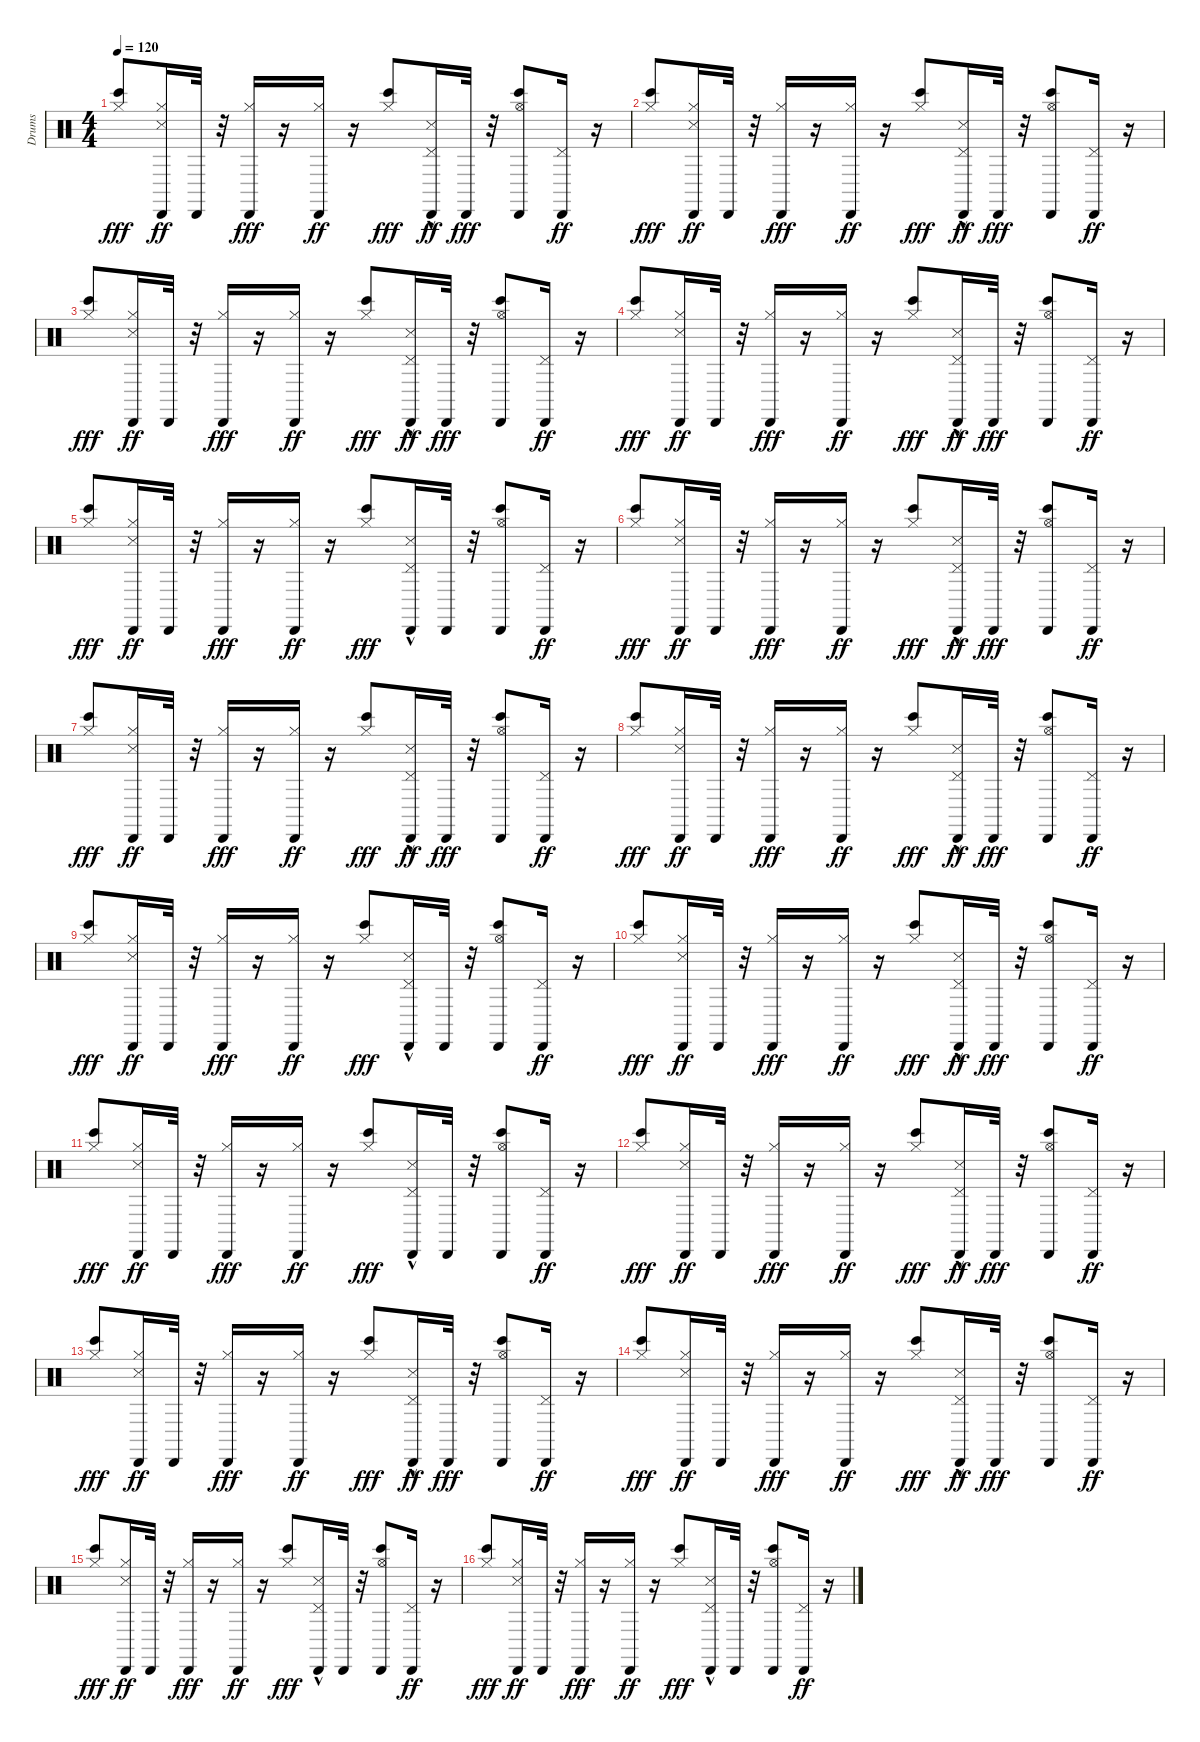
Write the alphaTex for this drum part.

\track ("Drums" "Drums") {instrument percussion}
\staff {score}
\articulation defaults
\ts (4 4)
\tempo 120
\clef neutral
\ks c
("Hi-Hat (closed)" "Bongo High (hit)").8{dy fff} ("Snare (side stick) 3" "Cabasa (hit)" "Hi-Hat (closed)").16{dy ff} "Cabasa (hit)".32 r.32 ("Cabasa (hit)" "Hi-Hat (closed)").16{dy fff} r.16 ("Cabasa (hit)" "Hi-Hat (closed)").16{dy ff} r.16 ("Hi-Hat (closed)" "Bongo High (hit)").8{dy fff} ("Snare (side stick) 3"{hac} "Cabasa (hit)" "Pedal Hi-Hat (hit)").16{dy ff} "Cabasa (hit)".32{dy fff} r.32 ("Cabasa (hit)" "Hi-Hat (open)" "Bongo High (hit)").8 ("Cabasa (hit)" "Pedal Hi-Hat (hit)").16{dy ff} r.16 |
("Hi-Hat (closed)" "Bongo High (hit)").8{dy fff} ("Snare (side stick) 3" "Cabasa (hit)" "Hi-Hat (closed)").16{dy ff} "Cabasa (hit)".32 r.32 ("Cabasa (hit)" "Hi-Hat (closed)").16{dy fff} r.16 ("Cabasa (hit)" "Hi-Hat (closed)").16{dy ff} r.16 ("Hi-Hat (closed)" "Bongo High (hit)").8{dy fff} ("Snare (side stick) 3"{hac} "Cabasa (hit)" "Pedal Hi-Hat (hit)").16{dy ff} "Cabasa (hit)".32{dy fff} r.32 ("Cabasa (hit)" "Hi-Hat (open)" "Bongo High (hit)").8 ("Cabasa (hit)" "Pedal Hi-Hat (hit)").16{dy ff} r.16 |
("Hi-Hat (closed)" "Bongo High (hit)").8{dy fff} ("Snare (side stick) 3" "Cabasa (hit)" "Hi-Hat (closed)").16{dy ff} "Cabasa (hit)".32 r.32 ("Cabasa (hit)" "Hi-Hat (closed)").16{dy fff} r.16 ("Cabasa (hit)" "Hi-Hat (closed)").16{dy ff} r.16 ("Hi-Hat (closed)" "Bongo High (hit)").8{dy fff} ("Snare (side stick) 3"{hac} "Cabasa (hit)" "Pedal Hi-Hat (hit)").16{dy ff} "Cabasa (hit)".32{dy fff} r.32 ("Cabasa (hit)" "Hi-Hat (open)" "Bongo High (hit)").8 ("Cabasa (hit)" "Pedal Hi-Hat (hit)").16{dy ff} r.16 |
("Hi-Hat (closed)" "Bongo High (hit)").8{dy fff} ("Snare (side stick) 3" "Cabasa (hit)" "Hi-Hat (closed)").16{dy ff} "Cabasa (hit)".32 r.32 ("Cabasa (hit)" "Hi-Hat (closed)").16{dy fff} r.16 ("Cabasa (hit)" "Hi-Hat (closed)").16{dy ff} r.16 ("Hi-Hat (closed)" "Bongo High (hit)").8{dy fff} ("Snare (side stick) 3"{hac} "Cabasa (hit)" "Pedal Hi-Hat (hit)").16{dy ff} "Cabasa (hit)".32{dy fff} r.32 ("Cabasa (hit)" "Hi-Hat (open)" "Bongo High (hit)").8 ("Cabasa (hit)" "Pedal Hi-Hat (hit)").16{dy ff} r.16 |
("Hi-Hat (closed)" "Bongo High (hit)").8{dy fff} ("Snare (side stick) 3" "Cabasa (hit)" "Hi-Hat (closed)").16{dy ff} "Cabasa (hit)".32 r.32 ("Cabasa (hit)" "Hi-Hat (closed)").16{dy fff} r.16 ("Cabasa (hit)" "Hi-Hat (closed)").16{dy ff} r.16 ("Hi-Hat (closed)" "Bongo High (hit)").8{dy fff} ("Pedal Hi-Hat (hit)" "Snare (side stick) 3"{hac} "Cabasa (hit)").16 "Cabasa (hit)".32 r.32 ("Cabasa (hit)" "Hi-Hat (open)" "Bongo High (hit)").8 ("Cabasa (hit)" "Pedal Hi-Hat (hit)").16{dy ff} r.16 |
("Hi-Hat (closed)" "Bongo High (hit)").8{dy fff} ("Snare (side stick) 3" "Cabasa (hit)" "Hi-Hat (closed)").16{dy ff} "Cabasa (hit)".32 r.32 ("Cabasa (hit)" "Hi-Hat (closed)").16{dy fff} r.16 ("Cabasa (hit)" "Hi-Hat (closed)").16{dy ff} r.16 ("Hi-Hat (closed)" "Bongo High (hit)").8{dy fff} ("Snare (side stick) 3"{hac} "Cabasa (hit)" "Pedal Hi-Hat (hit)").16{dy ff} "Cabasa (hit)".32{dy fff} r.32 ("Cabasa (hit)" "Hi-Hat (open)" "Bongo High (hit)").8 ("Cabasa (hit)" "Pedal Hi-Hat (hit)").16{dy ff} r.16 |
("Hi-Hat (closed)" "Bongo High (hit)").8{dy fff} ("Snare (side stick) 3" "Cabasa (hit)" "Hi-Hat (closed)").16{dy ff} "Cabasa (hit)".32 r.32 ("Cabasa (hit)" "Hi-Hat (closed)").16{dy fff} r.16 ("Cabasa (hit)" "Hi-Hat (closed)").16{dy ff} r.16 ("Hi-Hat (closed)" "Bongo High (hit)").8{dy fff} ("Snare (side stick) 3"{hac} "Cabasa (hit)" "Pedal Hi-Hat (hit)").16{dy ff} "Cabasa (hit)".32{dy fff} r.32 ("Cabasa (hit)" "Hi-Hat (open)" "Bongo High (hit)").8 ("Cabasa (hit)" "Pedal Hi-Hat (hit)").16{dy ff} r.16 |
("Hi-Hat (closed)" "Bongo High (hit)").8{dy fff} ("Snare (side stick) 3" "Cabasa (hit)" "Hi-Hat (closed)").16{dy ff} "Cabasa (hit)".32 r.32 ("Cabasa (hit)" "Hi-Hat (closed)").16{dy fff} r.16 ("Cabasa (hit)" "Hi-Hat (closed)").16{dy ff} r.16 ("Hi-Hat (closed)" "Bongo High (hit)").8{dy fff} ("Snare (side stick) 3"{hac} "Cabasa (hit)" "Pedal Hi-Hat (hit)").16{dy ff} "Cabasa (hit)".32{dy fff} r.32 ("Cabasa (hit)" "Hi-Hat (open)" "Bongo High (hit)").8 ("Cabasa (hit)" "Pedal Hi-Hat (hit)").16{dy ff} r.16 |
("Hi-Hat (closed)" "Bongo High (hit)").8{dy fff} ("Snare (side stick) 3" "Cabasa (hit)" "Hi-Hat (closed)").16{dy ff} "Cabasa (hit)".32 r.32 ("Cabasa (hit)" "Hi-Hat (closed)").16{dy fff} r.16 ("Cabasa (hit)" "Hi-Hat (closed)").16{dy ff} r.16 ("Hi-Hat (closed)" "Bongo High (hit)").8{dy fff} ("Pedal Hi-Hat (hit)" "Snare (side stick) 3"{hac} "Cabasa (hit)").16 "Cabasa (hit)".32 r.32 ("Cabasa (hit)" "Hi-Hat (open)" "Bongo High (hit)").8 ("Cabasa (hit)" "Pedal Hi-Hat (hit)").16{dy ff} r.16 |
("Hi-Hat (closed)" "Bongo High (hit)").8{dy fff} ("Snare (side stick) 3" "Cabasa (hit)" "Hi-Hat (closed)").16{dy ff} "Cabasa (hit)".32 r.32 ("Cabasa (hit)" "Hi-Hat (closed)").16{dy fff} r.16 ("Cabasa (hit)" "Hi-Hat (closed)").16{dy ff} r.16 ("Hi-Hat (closed)" "Bongo High (hit)").8{dy fff} ("Snare (side stick) 3"{hac} "Cabasa (hit)" "Pedal Hi-Hat (hit)").16{dy ff} "Cabasa (hit)".32{dy fff} r.32 ("Cabasa (hit)" "Hi-Hat (open)" "Bongo High (hit)").8 ("Cabasa (hit)" "Pedal Hi-Hat (hit)").16{dy ff} r.16 |
("Hi-Hat (closed)" "Bongo High (hit)").8{dy fff} ("Snare (side stick) 3" "Cabasa (hit)" "Hi-Hat (closed)").16{dy ff} "Cabasa (hit)".32 r.32 ("Cabasa (hit)" "Hi-Hat (closed)").16{dy fff} r.16 ("Cabasa (hit)" "Hi-Hat (closed)").16{dy ff} r.16 ("Hi-Hat (closed)" "Bongo High (hit)").8{dy fff} ("Cabasa (hit)" "Pedal Hi-Hat (hit)" "Snare (side stick) 3"{hac}).16 "Cabasa (hit)".32 r.32 ("Cabasa (hit)" "Hi-Hat (open)" "Bongo High (hit)").8 ("Cabasa (hit)" "Pedal Hi-Hat (hit)").16{dy ff} r.16 |
("Hi-Hat (closed)" "Bongo High (hit)").8{dy fff} ("Snare (side stick) 3" "Cabasa (hit)" "Hi-Hat (closed)").16{dy ff} "Cabasa (hit)".32 r.32 ("Cabasa (hit)" "Hi-Hat (closed)").16{dy fff} r.16 ("Cabasa (hit)" "Hi-Hat (closed)").16{dy ff} r.16 ("Hi-Hat (closed)" "Bongo High (hit)").8{dy fff} ("Snare (side stick) 3"{hac} "Cabasa (hit)" "Pedal Hi-Hat (hit)").16{dy ff} "Cabasa (hit)".32{dy fff} r.32 ("Cabasa (hit)" "Hi-Hat (open)" "Bongo High (hit)").8 ("Cabasa (hit)" "Pedal Hi-Hat (hit)").16{dy ff} r.16 |
("Hi-Hat (closed)" "Bongo High (hit)").8{dy fff} ("Snare (side stick) 3" "Cabasa (hit)" "Hi-Hat (closed)").16{dy ff} "Cabasa (hit)".32 r.32 ("Hi-Hat (closed)" "Cabasa (hit)").16{dy fff} r.16 ("Cabasa (hit)" "Hi-Hat (closed)").16{dy ff} r.16 ("Hi-Hat (closed)" "Bongo High (hit)").8{dy fff} ("Snare (side stick) 3"{hac} "Cabasa (hit)" "Pedal Hi-Hat (hit)").16{dy ff} "Cabasa (hit)".32{dy fff} r.32 ("Cabasa (hit)" "Hi-Hat (open)" "Bongo High (hit)").8 ("Cabasa (hit)" "Pedal Hi-Hat (hit)").16{dy ff} r.16 |
("Hi-Hat (closed)" "Bongo High (hit)").8{dy fff} ("Snare (side stick) 3" "Cabasa (hit)" "Hi-Hat (closed)").16{dy ff} "Cabasa (hit)".32 r.32 ("Cabasa (hit)" "Hi-Hat (closed)").16{dy fff} r.16 ("Cabasa (hit)" "Hi-Hat (closed)").16{dy ff} r.16 ("Hi-Hat (closed)" "Bongo High (hit)").8{dy fff} ("Snare (side stick) 3"{hac} "Cabasa (hit)" "Pedal Hi-Hat (hit)").16{dy ff} "Cabasa (hit)".32{dy fff} r.32 ("Cabasa (hit)" "Hi-Hat (open)" "Bongo High (hit)").8 ("Cabasa (hit)" "Pedal Hi-Hat (hit)").16{dy ff} r.16 |
("Hi-Hat (closed)" "Bongo High (hit)").8{dy fff} ("Snare (side stick) 3" "Cabasa (hit)" "Hi-Hat (closed)").16{dy ff} "Cabasa (hit)".32 r.32 ("Cabasa (hit)" "Hi-Hat (closed)").16{dy fff} r.16 ("Cabasa (hit)" "Hi-Hat (closed)").16{dy ff} r.16 ("Hi-Hat (closed)" "Bongo High (hit)").8{dy fff} ("Pedal Hi-Hat (hit)" "Snare (side stick) 3"{hac} "Cabasa (hit)").16 "Cabasa (hit)".32 r.32 ("Cabasa (hit)" "Hi-Hat (open)" "Bongo High (hit)").8 ("Cabasa (hit)" "Pedal Hi-Hat (hit)").16{dy ff} r.16 |
("Hi-Hat (closed)" "Bongo High (hit)").8{dy fff} ("Snare (side stick) 3" "Cabasa (hit)" "Hi-Hat (closed)").16{dy ff} "Cabasa (hit)".32 r.32 ("Cabasa (hit)" "Hi-Hat (closed)").16{dy fff} r.16 ("Cabasa (hit)" "Hi-Hat (closed)").16{dy ff} r.16 ("Hi-Hat (closed)" "Bongo High (hit)").8{dy fff} ("Cabasa (hit)" "Pedal Hi-Hat (hit)" "Snare (side stick) 3"{hac}).16 "Cabasa (hit)".32 r.32 ("Cabasa (hit)" "Hi-Hat (open)" "Bongo High (hit)").8 ("Cabasa (hit)" "Pedal Hi-Hat (hit)").16{dy ff} r.16
